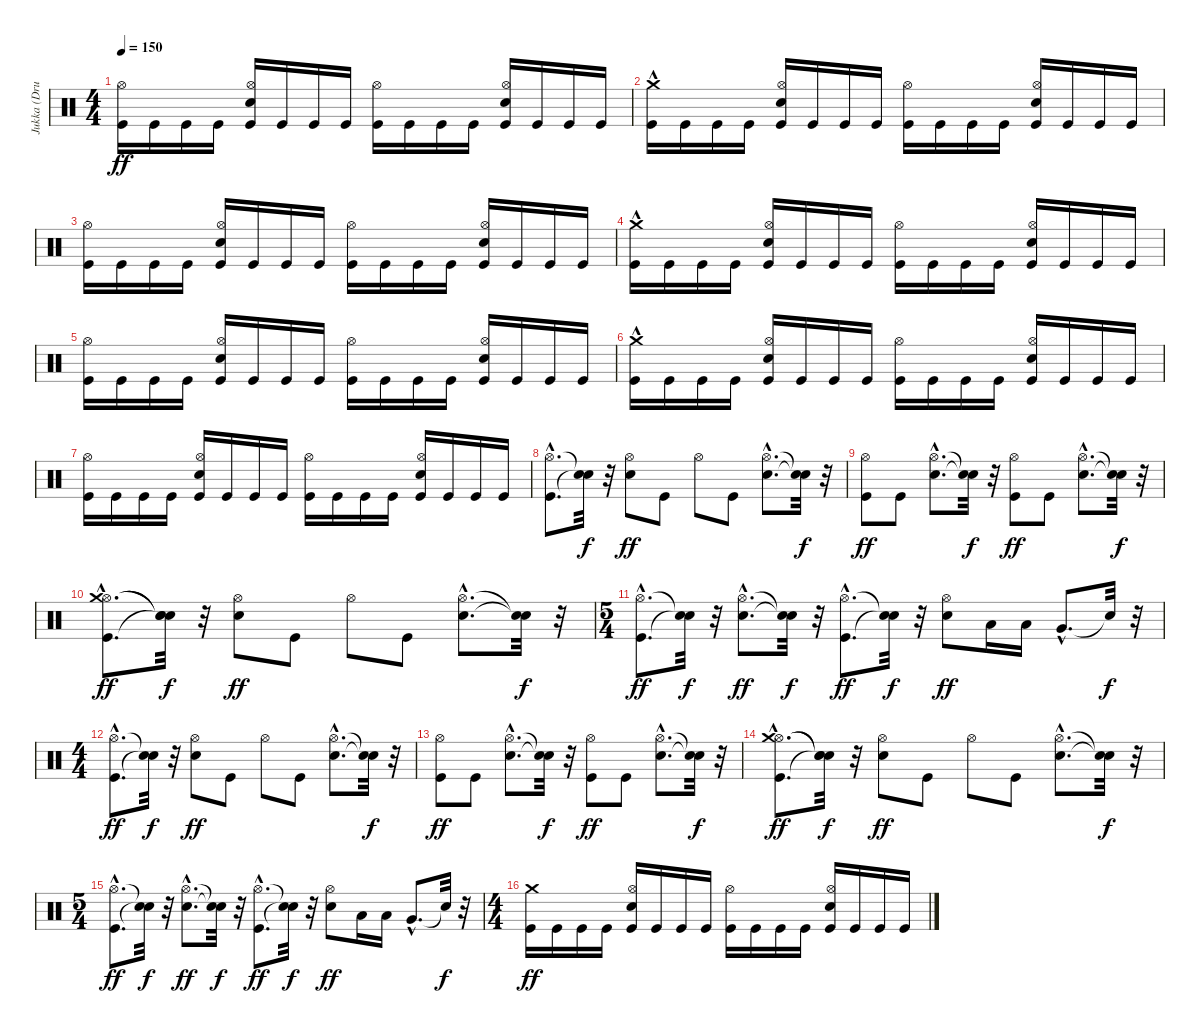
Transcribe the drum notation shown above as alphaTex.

\track ("Jukka (Drums)" "Jukka (Dru") {instrument percussion}
\staff {score}
\articulation defaults
\ts (4 4)
\tempo 150
\clef neutral
\ks c
("Kick (hit)" "Hi-Hat (open)").16{dy ff} "Kick (hit)".16 "Kick (hit)".16 "Kick (hit)".16 ("Kick (hit)" "Electric Snare (hit)" "Hi-Hat (open)").16 "Kick (hit)".16 "Kick (hit)".16 "Kick (hit)".16 ("Kick (hit)" "Hi-Hat (open)").16 "Kick (hit)".16 "Kick (hit)".16 "Kick (hit)".16 ("Kick (hit)" "Electric Snare (hit)" "Hi-Hat (open)").16 "Kick (hit)".16 "Kick (hit)".16 "Kick (hit)".16 |
("Kick (hit)" "Crash medium (hit)"{hac}).16 "Kick (hit)".16 "Kick (hit)".16 "Kick (hit)".16 ("Kick (hit)" "Electric Snare (hit)" "Hi-Hat (open)").16 "Kick (hit)".16 "Kick (hit)".16 "Kick (hit)".16 ("Kick (hit)" "Hi-Hat (open)").16 "Kick (hit)".16 "Kick (hit)".16 "Kick (hit)".16 ("Kick (hit)" "Electric Snare (hit)" "Hi-Hat (open)").16 "Kick (hit)".16 "Kick (hit)".16 "Kick (hit)".16 |
("Kick (hit)" "Hi-Hat (open)").16 "Kick (hit)".16 "Kick (hit)".16 "Kick (hit)".16 ("Kick (hit)" "Electric Snare (hit)" "Hi-Hat (open)").16 "Kick (hit)".16 "Kick (hit)".16 "Kick (hit)".16 ("Kick (hit)" "Hi-Hat (open)").16 "Kick (hit)".16 "Kick (hit)".16 "Kick (hit)".16 ("Kick (hit)" "Electric Snare (hit)" "Hi-Hat (open)").16 "Kick (hit)".16 "Kick (hit)".16 "Kick (hit)".16 |
("Kick (hit)" "Crash medium (hit)"{hac}).16 "Kick (hit)".16 "Kick (hit)".16 "Kick (hit)".16 ("Kick (hit)" "Electric Snare (hit)" "Hi-Hat (open)").16 "Kick (hit)".16 "Kick (hit)".16 "Kick (hit)".16 ("Kick (hit)" "Hi-Hat (open)").16 "Kick (hit)".16 "Kick (hit)".16 "Kick (hit)".16 ("Kick (hit)" "Electric Snare (hit)" "Hi-Hat (open)").16 "Kick (hit)".16 "Kick (hit)".16 "Kick (hit)".16 |
("Kick (hit)" "Hi-Hat (open)").16 "Kick (hit)".16 "Kick (hit)".16 "Kick (hit)".16 ("Kick (hit)" "Electric Snare (hit)" "Hi-Hat (open)").16 "Kick (hit)".16 "Kick (hit)".16 "Kick (hit)".16 ("Kick (hit)" "Hi-Hat (open)").16 "Kick (hit)".16 "Kick (hit)".16 "Kick (hit)".16 ("Kick (hit)" "Electric Snare (hit)" "Hi-Hat (open)").16 "Kick (hit)".16 "Kick (hit)".16 "Kick (hit)".16 |
("Kick (hit)" "Crash medium (hit)"{hac}).16 "Kick (hit)".16 "Kick (hit)".16 "Kick (hit)".16 ("Kick (hit)" "Electric Snare (hit)" "Hi-Hat (open)").16 "Kick (hit)".16 "Kick (hit)".16 "Kick (hit)".16 ("Kick (hit)" "Hi-Hat (open)").16 "Kick (hit)".16 "Kick (hit)".16 "Kick (hit)".16 ("Kick (hit)" "Electric Snare (hit)" "Hi-Hat (open)").16 "Kick (hit)".16 "Kick (hit)".16 "Kick (hit)".16 |
("Kick (hit)" "Hi-Hat (open)").16 "Kick (hit)".16 "Kick (hit)".16 "Kick (hit)".16 ("Kick (hit)" "Electric Snare (hit)" "Hi-Hat (open)").16 "Kick (hit)".16 "Kick (hit)".16 "Kick (hit)".16 ("Kick (hit)" "Hi-Hat (open)").16 "Kick (hit)".16 "Kick (hit)".16 "Kick (hit)".16 ("Kick (hit)" "Electric Snare (hit)" "Hi-Hat (open)").16 "Kick (hit)".16 "Kick (hit)".16 "Kick (hit)".16 |
("Kick (hit)"{hac} "Hi-Hat (open)"{hac}).8{d} ("Snare (hit)"{t} "Snare (hit)"{t}).32{dy f} r.32 ("Electric Snare (hit)" "Hi-Hat (open)").8{dy ff} "Kick (hit)".8 "Hi-Hat (open)".8 "Kick (hit)".8 ("Electric Snare (hit)"{hac} "Hi-Hat (open)"{hac}).8{d} ("Snare (hit)"{t} "Snare (hit)"{t}).32{dy f} r.32 |
("Kick (hit)" "Hi-Hat (open)").8{dy ff} "Kick (hit)".8 ("Electric Snare (hit)"{hac} "Hi-Hat (open)"{hac}).8{d} ("Snare (hit)"{t} "Snare (hit)"{t}).32{dy f} r.32 ("Kick (hit)" "Hi-Hat (open)").8{dy ff} "Kick (hit)".8 ("Electric Snare (hit)"{hac} "Hi-Hat (open)"{hac}).8{d} ("Snare (hit)"{t} "Snare (hit)"{t}).32{dy f} r.32 |
("Kick (hit)"{hac} "Hi-Hat (open)"{hac} "Crash medium (hit)"{hac}).8{d dy ff} ("Snare (hit)"{t} "Snare (hit)"{t} "Snare (hit)"{t}).32{dy f} r.32 ("Electric Snare (hit)" "Hi-Hat (open)").8{dy ff} "Kick (hit)".8 "Hi-Hat (open)".8 "Kick (hit)".8 ("Electric Snare (hit)"{hac} "Hi-Hat (open)"{hac}).8{d} ("Snare (hit)"{t} "Snare (hit)"{t}).32{dy f} r.32 |
\ts (5 4)
("Kick (hit)"{hac} "Hi-Hat (open)"{hac}).8{d dy ff} ("Snare (hit)"{t} "Snare (hit)"{t}).32{dy f} r.32 ("Electric Snare (hit)"{hac} "Hi-Hat (open)"{hac}).8{d dy ff} ("Snare (hit)"{t} "Snare (hit)"{t}).32{dy f} r.32 ("Kick (hit)"{hac} "Hi-Hat (open)"{hac}).8{d dy ff} ("Snare (hit)"{t} "Snare (hit)"{t}).32{dy f} r.32 ("Electric Snare (hit)" "Hi-Hat (open)").8{dy ff} "Low Tom (hit)".16 "Low Tom (hit)".16 "Very Low Tom (hit)"{hac}.8{d} "Snare (hit)"{t}.32{dy f} r.32 |
\ts (4 4)
("Kick (hit)"{hac} "Hi-Hat (open)"{hac}).8{d dy ff} ("Snare (hit)"{t} "Snare (hit)"{t}).32{dy f} r.32 ("Electric Snare (hit)" "Hi-Hat (open)").8{dy ff} "Kick (hit)".8 "Hi-Hat (open)".8 "Kick (hit)".8 ("Electric Snare (hit)"{hac} "Hi-Hat (open)"{hac}).8{d} ("Snare (hit)"{t} "Snare (hit)"{t}).32{dy f} r.32 |
("Kick (hit)" "Hi-Hat (open)").8{dy ff} "Kick (hit)".8 ("Electric Snare (hit)"{hac} "Hi-Hat (open)"{hac}).8{d} ("Snare (hit)"{t} "Snare (hit)"{t}).32{dy f} r.32 ("Kick (hit)" "Hi-Hat (open)").8{dy ff} "Kick (hit)".8 ("Electric Snare (hit)"{hac} "Hi-Hat (open)"{hac}).8{d} ("Snare (hit)"{t} "Snare (hit)"{t}).32{dy f} r.32 |
("Kick (hit)"{hac} "Hi-Hat (open)"{hac} "Crash medium (hit)"{hac}).8{d dy ff} ("Snare (hit)"{t} "Snare (hit)"{t} "Snare (hit)"{t}).32{dy f} r.32 ("Electric Snare (hit)" "Hi-Hat (open)").8{dy ff} "Kick (hit)".8 "Hi-Hat (open)".8 "Kick (hit)".8 ("Electric Snare (hit)"{hac} "Hi-Hat (open)"{hac}).8{d} ("Snare (hit)"{t} "Snare (hit)"{t}).32{dy f} r.32 |
\ts (5 4)
("Kick (hit)"{hac} "Hi-Hat (open)"{hac}).8{d dy ff} ("Snare (hit)"{t} "Snare (hit)"{t}).32{dy f} r.32 ("Electric Snare (hit)"{hac} "Hi-Hat (open)"{hac}).8{d dy ff} ("Snare (hit)"{t} "Snare (hit)"{t}).32{dy f} r.32 ("Kick (hit)"{hac} "Hi-Hat (open)"{hac}).8{d dy ff} ("Snare (hit)"{t} "Snare (hit)"{t}).32{dy f} r.32 ("Electric Snare (hit)" "Hi-Hat (open)").8{dy ff} "Low Tom (hit)".16 "Low Tom (hit)".16 "Very Low Tom (hit)"{hac}.8{d} "Snare (hit)"{t}.32{dy f} r.32 |
\ts (4 4)
("Kick (hit)" "Crash medium (hit)").16{dy ff} "Kick (hit)".16 "Kick (hit)".16 "Kick (hit)".16 ("Kick (hit)" "Electric Snare (hit)" "Hi-Hat (open)").16 "Kick (hit)".16 "Kick (hit)".16 "Kick (hit)".16 ("Kick (hit)" "Hi-Hat (open)").16 "Kick (hit)".16 "Kick (hit)".16 "Kick (hit)".16 ("Kick (hit)" "Electric Snare (hit)" "Hi-Hat (open)").16 "Kick (hit)".16 "Kick (hit)".16 "Kick (hit)".16
